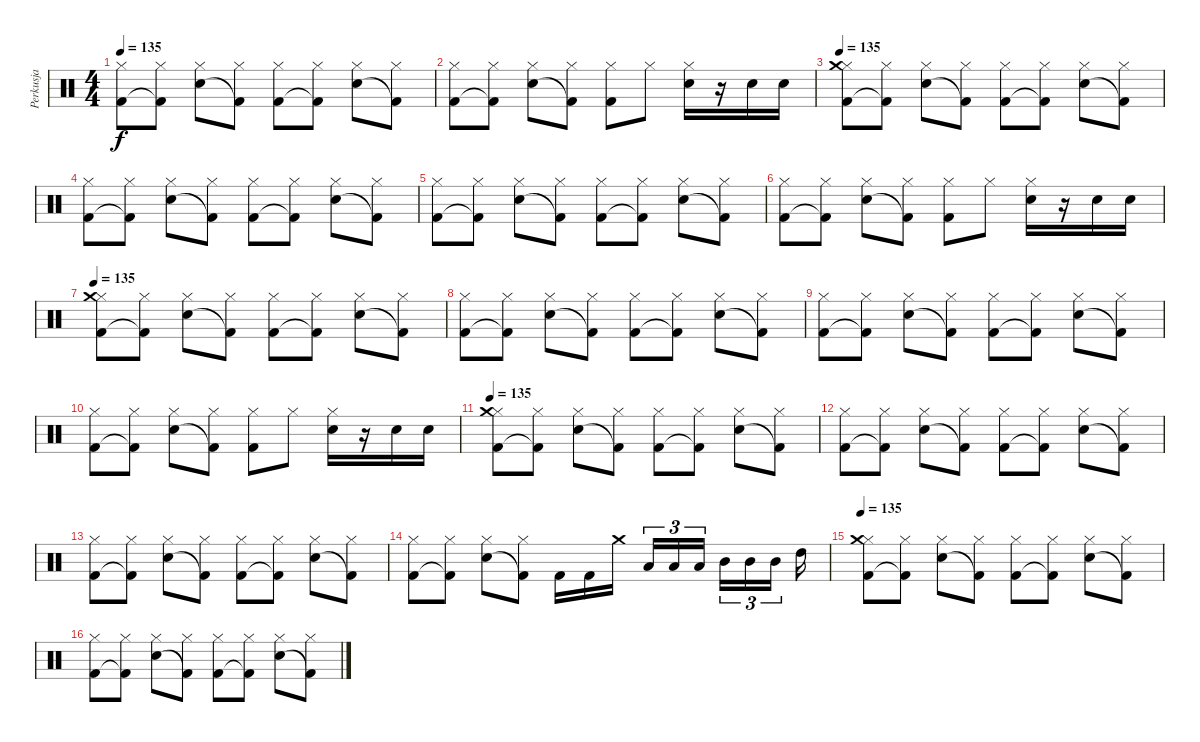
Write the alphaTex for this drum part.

\track ("Perkusja" "Perkusja") {instrument percussion}
\staff {score}
\articulation defaults
\ts (4 4)
\tempo 135
\clef neutral
\ks c
("Kick (hit) 2" "Hi-Hat (closed)").8{dy f} ("Kick (hit) 2"{t} "Hi-Hat (closed)").8 ("Snare (hit) 2" "Hi-Hat (closed)").8 ("Kick (hit) 2"{t} "Hi-Hat (closed)").8 ("Kick (hit) 2" "Hi-Hat (closed)").8 ("Kick (hit) 2"{t} "Hi-Hat (closed)").8 ("Snare (hit) 2" "Hi-Hat (closed)").8 ("Kick (hit) 2"{t} "Hi-Hat (closed)").8 |
("Kick (hit) 2" "Hi-Hat (closed)").8 ("Kick (hit) 2"{t} "Hi-Hat (closed)").8 ("Snare (hit) 2" "Hi-Hat (closed)").8 ("Kick (hit) 2"{t} "Hi-Hat (closed)").8 ("Kick (hit) 2" "Hi-Hat (closed)").8 "Hi-Hat (closed)".8 ("Snare (hit) 2" "Hi-Hat (closed)").16 r.16 "Snare (hit) 2".16 "Snare (hit) 2".16 |
\tempo 135
("Kick (hit) 2" "Hi-Hat (closed)" "Crash medium (hit)").8 ("Kick (hit) 2"{t} "Hi-Hat (closed)").8 ("Snare (hit) 2" "Hi-Hat (closed)").8 ("Kick (hit) 2"{t} "Hi-Hat (closed)").8 ("Kick (hit) 2" "Hi-Hat (closed)").8 ("Kick (hit) 2"{t} "Hi-Hat (closed)").8 ("Snare (hit) 2" "Hi-Hat (closed)").8 ("Kick (hit) 2"{t} "Hi-Hat (closed)").8 |
("Kick (hit) 2" "Hi-Hat (closed)").8 ("Kick (hit) 2"{t} "Hi-Hat (closed)").8 ("Snare (hit) 2" "Hi-Hat (closed)").8 ("Kick (hit) 2"{t} "Hi-Hat (closed)").8 ("Kick (hit) 2" "Hi-Hat (closed)").8 ("Kick (hit) 2"{t} "Hi-Hat (closed)").8 ("Snare (hit) 2" "Hi-Hat (closed)").8 ("Kick (hit) 2"{t} "Hi-Hat (closed)").8 |
("Kick (hit) 2" "Hi-Hat (closed)").8 ("Kick (hit) 2"{t} "Hi-Hat (closed)").8 ("Snare (hit) 2" "Hi-Hat (closed)").8 ("Kick (hit) 2"{t} "Hi-Hat (closed)").8 ("Kick (hit) 2" "Hi-Hat (closed)").8 ("Kick (hit) 2"{t} "Hi-Hat (closed)").8 ("Snare (hit) 2" "Hi-Hat (closed)").8 ("Kick (hit) 2"{t} "Hi-Hat (closed)").8 |
("Kick (hit) 2" "Hi-Hat (closed)").8 ("Kick (hit) 2"{t} "Hi-Hat (closed)").8 ("Snare (hit) 2" "Hi-Hat (closed)").8 ("Kick (hit) 2"{t} "Hi-Hat (closed)").8 ("Kick (hit) 2" "Hi-Hat (closed)").8 "Hi-Hat (closed)".8 ("Snare (hit) 2" "Hi-Hat (closed)").16 r.16 "Snare (hit) 2".16 "Snare (hit) 2".16 |
\tempo 135
("Kick (hit) 2" "Hi-Hat (closed)" "Crash medium (hit)").8 ("Kick (hit) 2"{t} "Hi-Hat (closed)").8 ("Snare (hit) 2" "Hi-Hat (closed)").8 ("Kick (hit) 2"{t} "Hi-Hat (closed)").8 ("Kick (hit) 2" "Hi-Hat (closed)").8 ("Kick (hit) 2"{t} "Hi-Hat (closed)").8 ("Snare (hit) 2" "Hi-Hat (closed)").8 ("Kick (hit) 2"{t} "Hi-Hat (closed)").8 |
("Kick (hit) 2" "Hi-Hat (closed)").8 ("Kick (hit) 2"{t} "Hi-Hat (closed)").8 ("Snare (hit) 2" "Hi-Hat (closed)").8 ("Kick (hit) 2"{t} "Hi-Hat (closed)").8 ("Kick (hit) 2" "Hi-Hat (closed)").8 ("Kick (hit) 2"{t} "Hi-Hat (closed)").8 ("Snare (hit) 2" "Hi-Hat (closed)").8 ("Kick (hit) 2"{t} "Hi-Hat (closed)").8 |
("Kick (hit) 2" "Hi-Hat (closed)").8 ("Kick (hit) 2"{t} "Hi-Hat (closed)").8 ("Snare (hit) 2" "Hi-Hat (closed)").8 ("Kick (hit) 2"{t} "Hi-Hat (closed)").8 ("Kick (hit) 2" "Hi-Hat (closed)").8 ("Kick (hit) 2"{t} "Hi-Hat (closed)").8 ("Snare (hit) 2" "Hi-Hat (closed)").8 ("Kick (hit) 2"{t} "Hi-Hat (closed)").8 |
("Kick (hit) 2" "Hi-Hat (closed)").8 ("Kick (hit) 2"{t} "Hi-Hat (closed)").8 ("Snare (hit) 2" "Hi-Hat (closed)").8 ("Kick (hit) 2"{t} "Hi-Hat (closed)").8 ("Kick (hit) 2" "Hi-Hat (closed)").8 "Hi-Hat (closed)".8 ("Snare (hit) 2" "Hi-Hat (closed)").16 r.16 "Snare (hit) 2".16 "Snare (hit) 2".16 |
\tempo 135
("Kick (hit) 2" "Hi-Hat (closed)" "Crash medium (hit)").8 ("Kick (hit) 2"{t} "Hi-Hat (closed)").8 ("Snare (hit) 2" "Hi-Hat (closed)").8 ("Kick (hit) 2"{t} "Hi-Hat (closed)").8 ("Kick (hit) 2" "Hi-Hat (closed)").8 ("Kick (hit) 2"{t} "Hi-Hat (closed)").8 ("Snare (hit) 2" "Hi-Hat (closed)").8 ("Kick (hit) 2"{t} "Hi-Hat (closed)").8 |
("Kick (hit) 2" "Hi-Hat (closed)").8 ("Kick (hit) 2"{t} "Hi-Hat (closed)").8 ("Snare (hit) 2" "Hi-Hat (closed)").8 ("Kick (hit) 2"{t} "Hi-Hat (closed)").8 ("Kick (hit) 2" "Hi-Hat (closed)").8 ("Kick (hit) 2"{t} "Hi-Hat (closed)").8 ("Snare (hit) 2" "Hi-Hat (closed)").8 ("Kick (hit) 2"{t} "Hi-Hat (closed)").8 |
("Kick (hit) 2" "Hi-Hat (closed)").8 ("Kick (hit) 2"{t} "Hi-Hat (closed)").8 ("Snare (hit) 2" "Hi-Hat (closed)").8 ("Kick (hit) 2"{t} "Hi-Hat (closed)").8 ("Kick (hit) 2" "Hi-Hat (closed)").8 ("Kick (hit) 2"{t} "Hi-Hat (closed)").8 ("Snare (hit) 2" "Hi-Hat (closed)").8 ("Kick (hit) 2"{t} "Hi-Hat (closed)").8 |
("Kick (hit) 2" "Hi-Hat (closed)").8 ("Kick (hit) 2"{t} "Hi-Hat (closed)").8 ("Snare (hit) 2" "Hi-Hat (closed)").8 ("Kick (hit) 2"{t} "Hi-Hat (closed)").8 "Kick (hit) 2".16 "Kick (hit) 2".16 "Crash medium (hit)".16 "Low Tom (hit)".16{tu (3 2)} "Low Tom (hit)".16{tu (3 2)} "Low Tom (hit)".16{tu (3 2)} "Mid Tom (hit)".16{tu (3 2)} "Mid Tom (hit)".16{tu (3 2)} "Mid Tom (hit)".16{tu (3 2)} "High Tom (hit)".16 |
\tempo 135
("Kick (hit) 2" "Hi-Hat (closed)" "Crash medium (hit)").8 ("Kick (hit) 2"{t} "Hi-Hat (closed)").8 ("Snare (hit) 2" "Hi-Hat (closed)").8 ("Kick (hit) 2"{t} "Hi-Hat (closed)").8 ("Kick (hit) 2" "Hi-Hat (closed)").8 ("Kick (hit) 2"{t} "Hi-Hat (closed)").8 ("Snare (hit) 2" "Hi-Hat (closed)").8 ("Kick (hit) 2"{t} "Hi-Hat (closed)").8 |
("Kick (hit) 2" "Hi-Hat (closed)").8 ("Kick (hit) 2"{t} "Hi-Hat (closed)").8 ("Snare (hit) 2" "Hi-Hat (closed)").8 ("Kick (hit) 2"{t} "Hi-Hat (closed)").8 ("Kick (hit) 2" "Hi-Hat (closed)").8 ("Kick (hit) 2"{t} "Hi-Hat (closed)").8 ("Snare (hit) 2" "Hi-Hat (closed)").8 ("Kick (hit) 2"{t} "Hi-Hat (closed)").8
